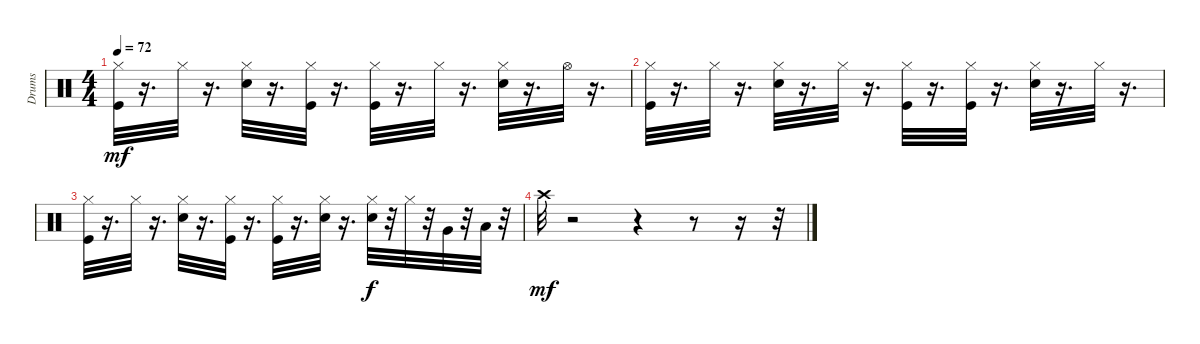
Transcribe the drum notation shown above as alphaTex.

\track ("Drums" "Drums") {instrument percussion}
\staff {score}
\articulation defaults
\ts (4 4)
\tempo 72
\clef neutral
\ks c
("Hi-Hat (closed)" "Kick (hit)").32{dy mf} r.16{d} "Hi-Hat (closed)".32 r.16{d} ("Snare (hit) 2" "Hi-Hat (closed)").32 r.16{d} ("Hi-Hat (closed)" "Kick (hit)").32 r.16{d} ("Hi-Hat (closed)" "Kick (hit)").32 r.16{d} "Hi-Hat (closed)".32 r.16{d} ("Hi-Hat (closed)" "Snare (hit) 2").32 r.16{d} "Hi-Hat (open)".32 r.16{d} |
("Hi-Hat (closed)" "Kick (hit)").32 r.16{d} "Hi-Hat (closed)".32 r.16{d} ("Hi-Hat (closed)" "Snare (hit) 2").32 r.16{d} "Hi-Hat (closed)".32 r.16{d} ("Hi-Hat (closed)" "Kick (hit)").32 r.16{d} ("Hi-Hat (closed)" "Kick (hit)").32 r.16{d} ("Hi-Hat (closed)" "Snare (hit) 2").32 r.16{d} "Hi-Hat (closed)".32 r.16{d} |
("Hi-Hat (closed)" "Kick (hit)").32 r.16{d} "Hi-Hat (closed)".32 r.16{d} ("Snare (hit) 2" "Hi-Hat (closed)").32 r.16{d} ("Hi-Hat (closed)" "Kick (hit)").32 r.16{d} ("Hi-Hat (closed)" "Kick (hit)").32 r.16{d} ("Snare (hit) 2" "Hi-Hat (closed)").32 r.16{d} ("Snare (hit) 2" "Hi-Hat (closed)").32{dy f} r.32 "Hi-Hat (closed)".32 r.32 "Very Low Tom (hit)".32 r.32 "Low Floor Tom (hit)".32 r.32 |
"Crash high (hit)".32{dy mf} r.2 r.4 r.8 r.16 r.32
